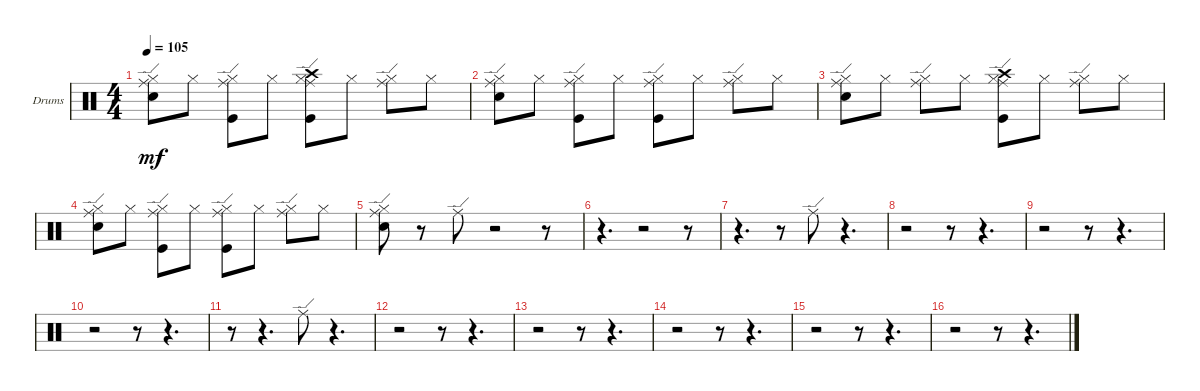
\defaultSystemsLayout 4
\bracketExtendMode groupsimilarinstruments
\firstSystemTrackNameOrientation horizontal
\otherSystemsTrackNameOrientation horizontal
\track ("Drumkit" "Drums") {instrument percussion}
\staff {score}
\articulation defaults
\ts (4 4)
\tempo 105
\clef neutral
\scale
0.333333
\ks c
("Snare (hit) 2" "Ride (edge)" "Hi-Hat (closed)").8{dy mf} "Hi-Hat (closed)".8 ("Kick (hit)" "Ride (edge)" "Hi-Hat (closed)").8 "Hi-Hat (closed)".8 ("Kick (hit)" "Ride (edge)" "Hi-Hat (closed)" "Crash high (hit)").8 "Hi-Hat (closed)".8 ("Ride (edge)" "Hi-Hat (closed)").8 "Hi-Hat (closed)".8 |
\scale
0.333333 ("Snare (hit) 2" "Ride (edge)" "Hi-Hat (closed)").8 "Hi-Hat (closed)".8 ("Kick (hit)" "Ride (edge)" "Hi-Hat (closed)").8 "Hi-Hat (closed)".8 ("Kick (hit)" "Ride (edge)" "Hi-Hat (closed)").8 "Hi-Hat (closed)".8 ("Ride (edge)" "Hi-Hat (closed)").8 "Hi-Hat (closed)".8 |
\scale
0.333333 ("Snare (hit) 2" "Ride (edge)" "Hi-Hat (closed)").8 "Hi-Hat (closed)".8 ("Ride (edge)" "Hi-Hat (closed)").8 "Hi-Hat (closed)".8 ("Kick (hit)" "Ride (edge)" "Hi-Hat (closed)" "Crash high (hit)").8 "Hi-Hat (closed)".8 ("Ride (edge)" "Hi-Hat (closed)").8 "Hi-Hat (closed)".8 |
\scale
0.333333 ("Snare (hit) 2" "Ride (edge)" "Hi-Hat (closed)").8 "Hi-Hat (closed)".8 ("Kick (hit)" "Ride (edge)" "Hi-Hat (closed)").8 "Hi-Hat (closed)".8 ("Kick (hit)" "Ride (edge)" "Hi-Hat (closed)").8 "Hi-Hat (closed)".8 ("Ride (edge)" "Hi-Hat (closed)").8 "Hi-Hat (closed)".8 |
\scale
0.333333 ("Snare (hit) 2" "Ride (edge)" "Hi-Hat (closed)").8 r.8 "Ride (edge)".8 r.2 r.8 |
\scale
0.333333 r.4{d} r.2 r.8 |
\scale
0.333333 r.4{d} r.8 "Ride (edge)".8 r.4{d} |
\scale
0.333333 r.2 r.8 r.4{d} |
\scale
0.333333 r.2 r.8 r.4{d} |
\scale
0.333333 r.2 r.8 r.4{d} |
\scale
0.333333 r.8 r.4{d} "Ride (edge)".8 r.4{d} |
\scale
0.333333 r.2 r.8 r.4{d} |
\scale
0.333333 r.2 r.8 r.4{d} |
\scale
0.333333 r.2 r.8 r.4{d} |
\scale
0.333333 r.2 r.8 r.4{d} |
\scale
0.333333 r.2 r.8 r.4{d}
